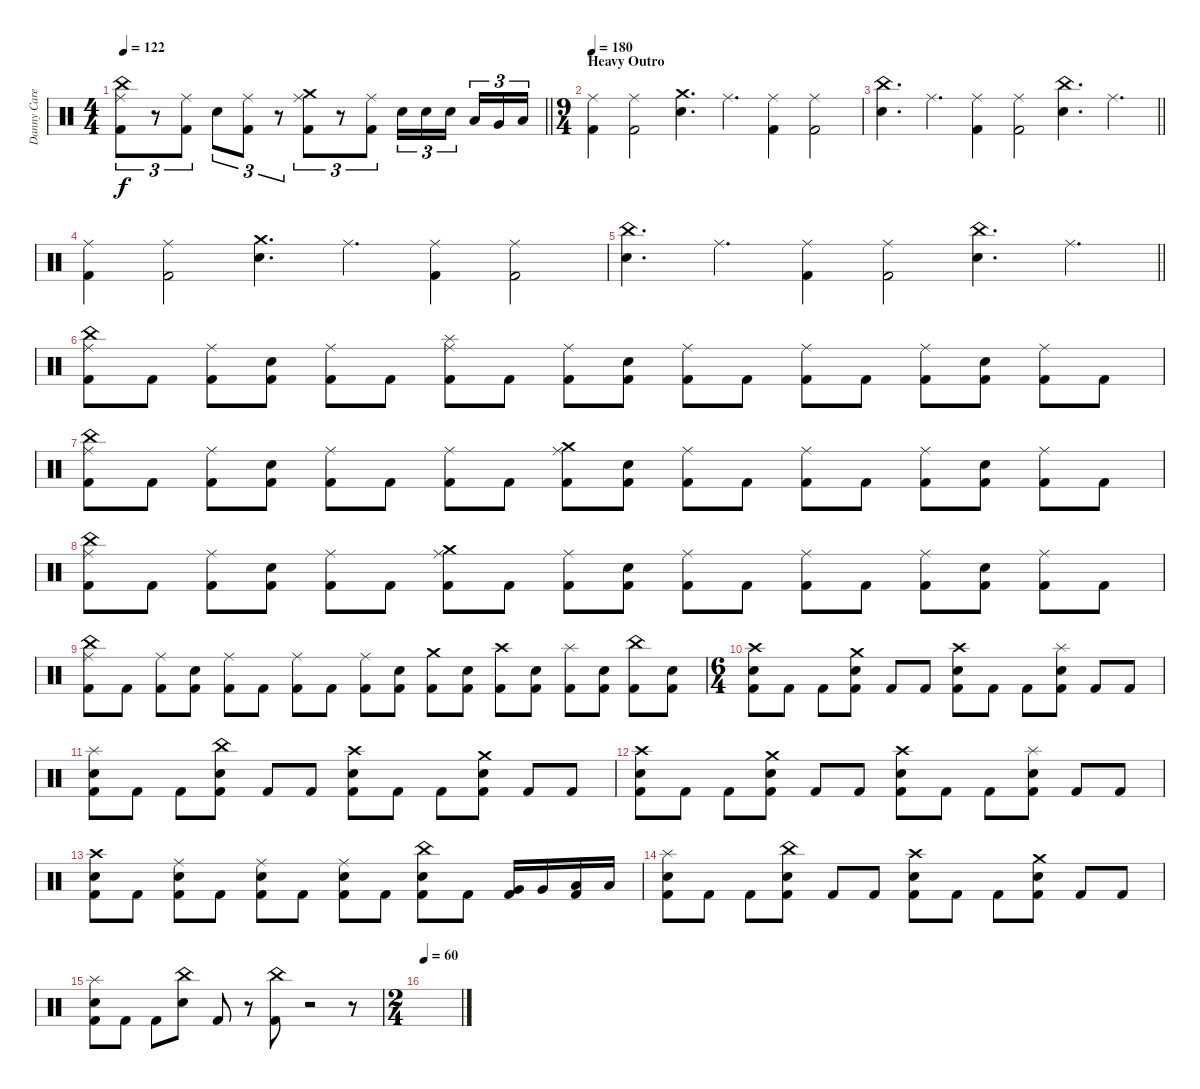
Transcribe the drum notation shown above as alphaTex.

\track ("Danny Carey" "Danny Care") {instrument percussion}
\staff {score}
\articulation defaults
\ts (4 4)
\tempo 122
\clef neutral
\barLineRight lightlight
\ks c
("China (hit)" "Ride (middle)" "Kick (hit) 2").8{tu (3 2) dy f} r.8{tu (3 2)} ("Ride (middle)" "Kick (hit) 2").8{tu (3 2)} "Electric Snare (hit)".8{tu (3 2)} ("Ride (middle)" "Kick (hit) 2").8{tu (3 2)} r.8{tu (3 2)} ("Crash medium (hit)" "Ride (middle)" "Kick (hit) 2").8{tu (3 2)} r.8{tu (3 2)} ("Ride (middle)" "Kick (hit) 2").8{tu (3 2)} "Electric Snare (hit)".16{tu (3 2)} "Electric Snare (hit)".16{tu (3 2)} "Electric Snare (hit)".16{tu (3 2) beam splitsecondary} "Low Tom (hit)".16{tu (3 2)} "Very Low Tom (hit)".16{tu (3 2)} "Low Floor Tom (hit)".16{tu (3 2)} |
\ts (9 4)
\section ("" "Heavy Outro")
\tempo 180
("Ride (middle)" "Kick (hit) 2").4 ("Ride (middle)" "Kick (hit) 2").2 ("Crash medium (hit)" "Electric Snare (hit)").4{d} "Ride (middle)".4{d} ("Ride (middle)" "Kick (hit) 2").4 ("Ride (middle)" "Kick (hit) 2").2 |
\barLineRight lightlight
("China (hit)" "Electric Snare (hit)").4{d} "Ride (middle)".4{d} ("Ride (middle)" "Kick (hit) 2").4 ("Ride (middle)" "Kick (hit) 2").2 ("China (hit)" "Electric Snare (hit)").4{d} "Ride (middle)".4{d} |
("Ride (middle)" "Kick (hit) 2").4 ("Ride (middle)" "Kick (hit) 2").2 ("Crash medium (hit)" "Electric Snare (hit)").4{d} "Ride (middle)".4{d} ("Ride (middle)" "Kick (hit) 2").4 ("Ride (middle)" "Kick (hit) 2").2 |
\barLineRight lightlight
("China (hit)" "Electric Snare (hit)").4{d} "Ride (middle)".4{d} ("Ride (middle)" "Kick (hit) 2").4 ("Ride (middle)" "Kick (hit) 2").2 ("China (hit)" "Electric Snare (hit)").4{d} "Ride (middle)".4{d} |
("China (hit)" "Ride (middle)" "Kick (hit) 2").8 "Kick (hit) 2".8 ("Ride (middle)" "Kick (hit) 2").8 ("Electric Snare (hit)" "Kick (hit) 2").8 ("Ride (middle)" "Kick (hit) 2").8 "Kick (hit) 2".8 ("Splash (hit)" "Ride (middle)" "Kick (hit) 2").8 "Kick (hit) 2".8 ("Ride (middle)" "Kick (hit) 2").8 ("Electric Snare (hit)" "Kick (hit) 2").8 ("Ride (middle)" "Kick (hit) 2").8 "Kick (hit) 2".8 ("Ride (middle)" "Kick (hit) 2").8 "Kick (hit) 2".8 ("Ride (middle)" "Kick (hit) 2").8 ("Electric Snare (hit)" "Kick (hit) 2").8 ("Ride (middle)" "Kick (hit) 2").8 "Kick (hit) 2".8 |
("China (hit)" "Ride (middle)" "Kick (hit) 2").8 "Kick (hit) 2".8 ("Ride (middle)" "Kick (hit) 2").8 ("Electric Snare (hit)" "Kick (hit) 2").8 ("Ride (middle)" "Kick (hit) 2").8 "Kick (hit) 2".8 ("Ride (middle)" "Kick (hit) 2").8 "Kick (hit) 2".8 ("Crash medium (hit)" "Ride (middle)" "Kick (hit) 2").8 ("Electric Snare (hit)" "Kick (hit) 2").8 ("Ride (middle)" "Kick (hit) 2").8 "Kick (hit) 2".8 ("Ride (middle)" "Kick (hit) 2").8 "Kick (hit) 2".8 ("Ride (middle)" "Kick (hit) 2").8 ("Electric Snare (hit)" "Kick (hit) 2").8 ("Ride (middle)" "Kick (hit) 2").8 "Kick (hit) 2".8 |
("China (hit)" "Ride (middle)" "Kick (hit) 2").8 "Kick (hit) 2".8 ("Ride (middle)" "Kick (hit) 2").8 ("Electric Snare (hit)" "Kick (hit) 2").8 ("Ride (middle)" "Kick (hit) 2").8 "Kick (hit) 2".8 ("Crash medium (hit)" "Ride (middle)" "Kick (hit) 2").8 "Kick (hit) 2".8 ("Ride (middle)" "Kick (hit) 2").8 ("Electric Snare (hit)" "Kick (hit) 2").8 ("Ride (middle)" "Kick (hit) 2").8 "Kick (hit) 2".8 ("Ride (middle)" "Kick (hit) 2").8 "Kick (hit) 2".8 ("Ride (middle)" "Kick (hit) 2").8 ("Electric Snare (hit)" "Kick (hit) 2").8 ("Ride (middle)" "Kick (hit) 2").8 "Kick (hit) 2".8 |
("China (hit)" "Ride (middle)" "Kick (hit) 2").8 "Kick (hit) 2".8 ("Ride (middle)" "Kick (hit) 2").8 ("Electric Snare (hit)" "Kick (hit) 2").8 ("Ride (middle)" "Kick (hit) 2").8 "Kick (hit) 2".8 ("Ride (middle)" "Kick (hit) 2").8 "Kick (hit) 2".8 ("Ride (middle)" "Kick (hit) 2").8 ("Electric Snare (hit)" "Kick (hit) 2").8 ("Crash medium (hit)" "Kick (hit) 2").8 ("Electric Snare (hit)" "Kick (hit) 2").8 ("Crash high (hit)" "Kick (hit) 2").8 ("Electric Snare (hit)" "Kick (hit) 2").8 ("Splash (hit)" "Kick (hit) 2").8 ("Electric Snare (hit)" "Kick (hit) 2").8 ("China (hit)" "Kick (hit) 2").8 ("Electric Snare (hit)" "Kick (hit) 2").8 |
\ts (6 4)
("Crash high (hit)" "Electric Snare (hit)" "Kick (hit) 2").8 "Kick (hit) 2".8 "Kick (hit) 2".8 ("Crash medium (hit)" "Electric Snare (hit)" "Kick (hit) 2").8 "Kick (hit) 2".8 "Kick (hit) 2".8 ("Crash high (hit)" "Electric Snare (hit)" "Kick (hit) 2").8 "Kick (hit) 2".8 "Kick (hit) 2".8 ("Splash (hit)" "Electric Snare (hit)" "Kick (hit) 2").8 "Kick (hit) 2".8 "Kick (hit) 2".8 |
("Splash (hit)" "Electric Snare (hit)" "Kick (hit) 2").8 "Kick (hit) 2".8 "Kick (hit) 2".8 ("China (hit)" "Electric Snare (hit)" "Kick (hit) 2").8 "Kick (hit) 2".8 "Kick (hit) 2".8 ("Crash high (hit)" "Electric Snare (hit)" "Kick (hit) 2").8 "Kick (hit) 2".8 "Kick (hit) 2".8 ("Crash medium (hit)" "Electric Snare (hit)" "Kick (hit) 2").8 "Kick (hit) 2".8 "Kick (hit) 2".8 |
("Crash high (hit)" "Electric Snare (hit)" "Kick (hit) 2").8 "Kick (hit) 2".8 "Kick (hit) 2".8 ("Crash medium (hit)" "Electric Snare (hit)" "Kick (hit) 2").8 "Kick (hit) 2".8 "Kick (hit) 2".8 ("Crash high (hit)" "Electric Snare (hit)" "Kick (hit) 2").8 "Kick (hit) 2".8 "Kick (hit) 2".8 ("Splash (hit)" "Electric Snare (hit)" "Kick (hit) 2").8 "Kick (hit) 2".8 "Kick (hit) 2".8 |
("Crash high (hit)" "Electric Snare (hit)" "Kick (hit) 2").8 "Kick (hit) 2".8 ("Ride (middle)" "Electric Snare (hit)" "Kick (hit) 2").8 "Kick (hit) 2".8 ("Ride (middle)" "Electric Snare (hit)" "Kick (hit) 2").8 "Kick (hit) 2".8 ("Ride (middle)" "Electric Snare (hit)" "Kick (hit) 2").8 "Kick (hit) 2".8 ("China (hit)" "Electric Snare (hit)" "Kick (hit) 2").8 "Kick (hit) 2".8 ("Very Low Tom (hit)" "Kick (hit) 2").16 "Very Low Tom (hit)".16 ("Low Floor Tom (hit)" "Kick (hit) 2").16 "Low Floor Tom (hit)".16 |
("Splash (hit)" "Electric Snare (hit)" "Kick (hit) 2").8 "Kick (hit) 2".8 "Kick (hit) 2".8 ("China (hit)" "Electric Snare (hit)" "Kick (hit) 2").8 "Kick (hit) 2".8 "Kick (hit) 2".8 ("Crash high (hit)" "Electric Snare (hit)" "Kick (hit) 2").8 "Kick (hit) 2".8 "Kick (hit) 2".8 ("Crash medium (hit)" "Electric Snare (hit)" "Kick (hit) 2").8 "Kick (hit) 2".8 "Kick (hit) 2".8 |
("Splash (hit)" "Electric Snare (hit)" "Kick (hit) 2").8 "Kick (hit) 2".8 "Kick (hit) 2".8 ("China (hit)" "Electric Snare (hit)").8 "Kick (hit) 2".8 r.8 ("China (hit)" "Kick (hit) 2").8 r.2 r.8 |
\ts (2 4)
\tempo 60
